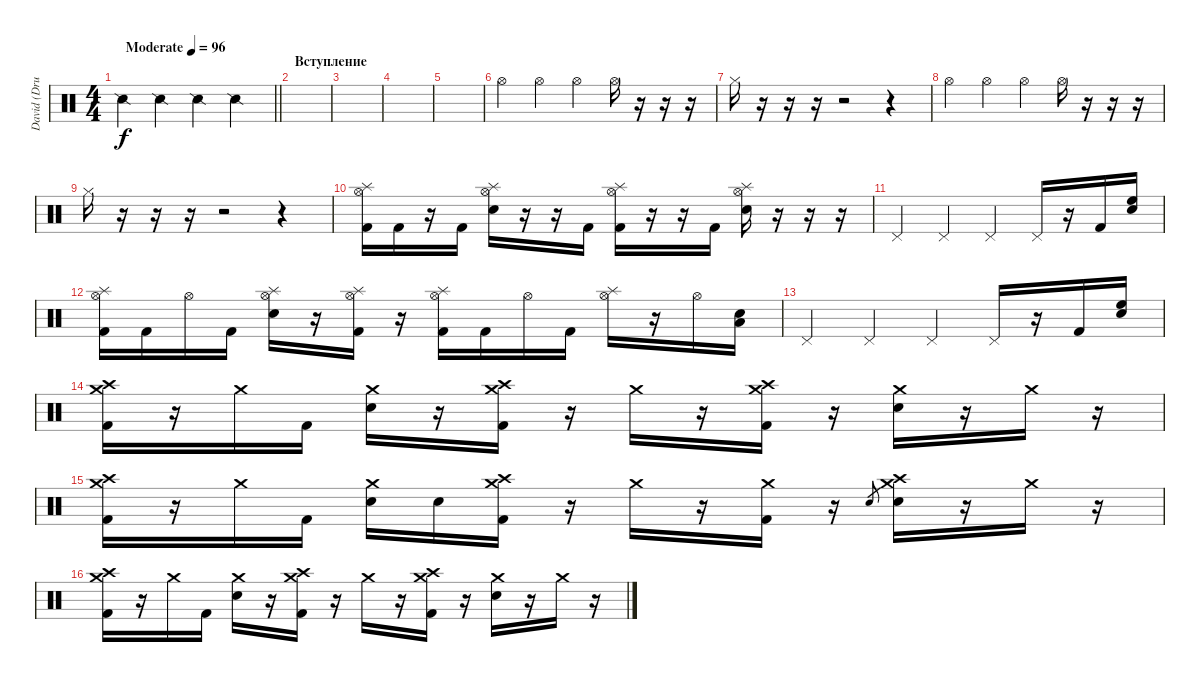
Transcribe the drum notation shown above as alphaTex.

\track ("David (Drums)" "David (Dru") {instrument percussion}
\staff {score}
\articulation defaults
\ts (4 4)
\tempo (96 "Moderate")
\clef neutral
\barLineRight lightlight
\ks c "Snare (side stick) 2".4{dy f} "Snare (side stick) 2".4 "Snare (side stick) 2".4 "Snare (side stick) 2".4
|
\section ("" "Вступление")
|
|
|
|
"Hi-Hat (open)".4 "Hi-Hat (open)".4 "Hi-Hat (open)".4 "Hi-Hat (open)".16 r.16 r.16 r.16 |
"Hi-Hat (closed)".16 r.16 r.16 r.16 r.2 r.4 |
"Hi-Hat (open)".4 "Hi-Hat (open)".4 "Hi-Hat (open)".4 "Hi-Hat (open)".16 r.16 r.16 r.16 |
"Hi-Hat (closed)".16 r.16 r.16 r.16 r.2 r.4 |
("Hi-Hat (open)" "Splash (hit)" "Kick (hit) 2").16 "Kick (hit) 2".16 r.16 "Kick (hit) 2".16 ("Hi-Hat (open)" "Splash (hit)" "Electric Snare (hit)").16 r.16 r.16 "Kick (hit) 2".16 ("Hi-Hat (open)" "Splash (hit)" "Kick (hit) 2").16 r.16 r.16 "Kick (hit) 2".16 ("Hi-Hat (open)" "Splash (hit)" "Electric Snare (hit)").16 r.16 r.16 r.16 |
"Pedal Hi-Hat (hit)".4 "Pedal Hi-Hat (hit)".4 "Pedal Hi-Hat (hit)".4 "Pedal Hi-Hat (hit)".16 r.16 "Kick (hit) 2".16 ("Electric Snare (hit)" "High Floor Tom (hit)").16 |
("Hi-Hat (open)" "Splash (hit)" "Kick (hit) 2").16 "Kick (hit) 2".16 "Hi-Hat (open)".16 "Kick (hit) 2".16 ("Hi-Hat (open)" "Splash (hit)" "Electric Snare (hit)").16 r.16 ("Hi-Hat (open)" "Splash (hit)" "Kick (hit) 2").16 r.16 ("Hi-Hat (open)" "Splash (hit)" "Kick (hit) 2").16 "Kick (hit) 2".16 "Hi-Hat (open)".16 "Kick (hit) 2".16 ("Hi-Hat (open)" "Splash (hit)").16 r.16 "Hi-Hat (open)".16 ("Low Floor Tom (hit)" "Electric Snare (hit)").16 |
"Pedal Hi-Hat (hit)".4 "Pedal Hi-Hat (hit)".4 "Pedal Hi-Hat (hit)".4 "Pedal Hi-Hat (hit)".16 r.16 "Kick (hit) 2".16 ("Electric Snare (hit)" "High Floor Tom (hit)").16 |
("Crash high (hit)" "Crash medium (hit)" "Kick (hit) 2").16 r.16 "Crash medium (hit)".16 "Kick (hit) 2".16 ("Crash medium (hit)" "Electric Snare (hit)").16 r.16 ("Crash high (hit)" "Crash medium (hit)" "Kick (hit) 2").16 r.16 "Crash medium (hit)".16 r.16 ("Crash high (hit)" "Crash medium (hit)" "Kick (hit) 2").16 r.16 ("Crash medium (hit)" "Electric Snare (hit)").16 r.16 "Crash medium (hit)".16 r.16 |
("Crash high (hit)" "Crash medium (hit)" "Kick (hit) 2").16 r.16 "Crash medium (hit)".16 "Kick (hit) 2".16 ("Crash medium (hit)" "Electric Snare (hit)").16 "Electric Snare (hit)".16 ("Crash high (hit)" "Crash medium (hit)" "Kick (hit) 2").16 r.16 "Crash medium (hit)".16 r.16 ("Crash medium (hit)" "Kick (hit) 2").16 r.16 "Electric Snare (hit)".8{gr} ("Crash high (hit)" "Crash medium (hit)" "Electric Snare (hit)").16 r.16 "Crash medium (hit)".16 r.16 |
("Crash high (hit)" "Crash medium (hit)" "Kick (hit) 2").16 r.16 "Crash medium (hit)".16 "Kick (hit) 2".16 ("Crash medium (hit)" "Electric Snare (hit)").16 r.16 ("Crash high (hit)" "Crash medium (hit)" "Kick (hit) 2").16 r.16 "Crash medium (hit)".16 r.16 ("Crash high (hit)" "Crash medium (hit)" "Kick (hit) 2").16 r.16 ("Crash medium (hit)" "Electric Snare (hit)").16 r.16 "Crash medium (hit)".16 r.16
